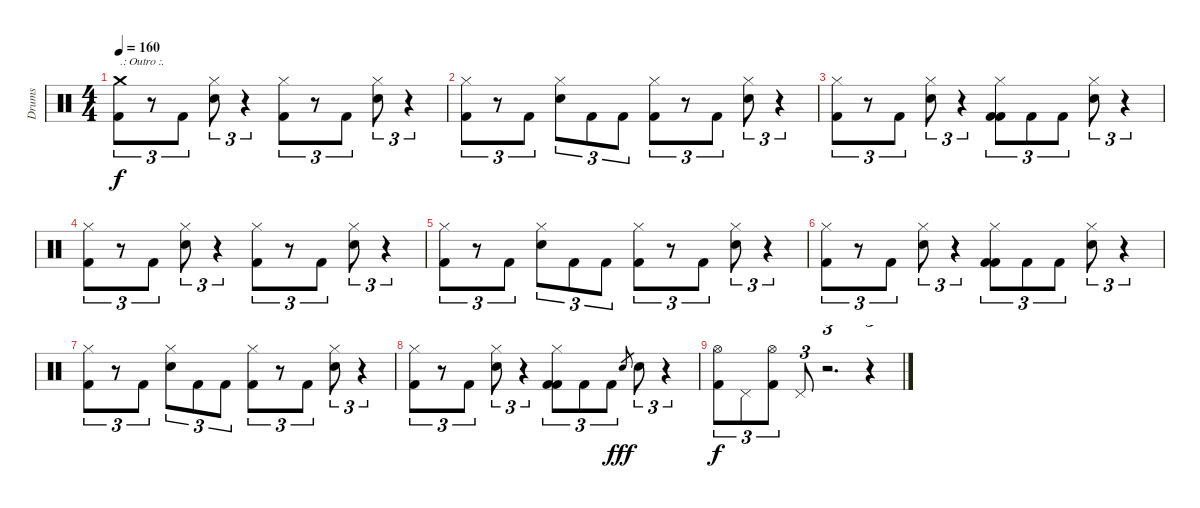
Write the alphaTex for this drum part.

\track ("Drums" "Drums") {instrument percussion}
\staff {score}
\articulation defaults
\ts (4 4)
\tempo 160
\clef neutral
\ks c
("Crash medium (hit)" "Kick (hit) 2").8{tu (3 2) txt ".: Outro :." dy f} r.8{tu (3 2)} "Kick (hit) 2".8{tu (3 2)} ("Hi-Hat (closed)" "Electric Snare (hit)").8{tu (3 2)} r.4{tu (3 2)} ("Kick (hit) 2" "Hi-Hat (closed)").8{tu (3 2)} r.8{tu (3 2)} "Kick (hit) 2".8{tu (3 2)} ("Hi-Hat (closed)" "Electric Snare (hit)").8{tu (3 2)} r.4{tu (3 2)} |
("Hi-Hat (closed)" "Kick (hit) 2").8{tu (3 2)} r.8{tu (3 2)} "Kick (hit) 2".8{tu (3 2)} ("Hi-Hat (closed)" "Electric Snare (hit)").8{tu (3 2)} "Kick (hit) 2".8{tu (3 2)} "Kick (hit) 2".8{tu (3 2)} ("Kick (hit) 2" "Hi-Hat (closed)").8{tu (3 2)} r.8{tu (3 2)} "Kick (hit) 2".8{tu (3 2)} ("Hi-Hat (closed)" "Electric Snare (hit)").8{tu (3 2)} r.4{tu (3 2)} |
("Hi-Hat (closed)" "Kick (hit) 2").8{tu (3 2)} r.8{tu (3 2)} "Kick (hit) 2".8{tu (3 2)} ("Hi-Hat (closed)" "Electric Snare (hit)").8{tu (3 2)} r.4{tu (3 2)} ("Kick (hit) 2" "Hi-Hat (closed)" "Kick (hit) 2").8{tu (3 2)} "Kick (hit) 2".8{tu (3 2)} "Kick (hit) 2".8{tu (3 2)} ("Hi-Hat (closed)" "Electric Snare (hit)").8{tu (3 2)} r.4{tu (3 2)} |
("Hi-Hat (closed)" "Kick (hit) 2").8{tu (3 2)} r.8{tu (3 2)} "Kick (hit) 2".8{tu (3 2)} ("Hi-Hat (closed)" "Electric Snare (hit)").8{tu (3 2)} r.4{tu (3 2)} ("Kick (hit) 2" "Hi-Hat (closed)").8{tu (3 2)} r.8{tu (3 2)} "Kick (hit) 2".8{tu (3 2)} ("Hi-Hat (closed)" "Electric Snare (hit)").8{tu (3 2)} r.4{tu (3 2)} |
("Hi-Hat (closed)" "Kick (hit) 2").8{tu (3 2)} r.8{tu (3 2)} "Kick (hit) 2".8{tu (3 2)} ("Hi-Hat (closed)" "Electric Snare (hit)").8{tu (3 2)} "Kick (hit) 2".8{tu (3 2)} "Kick (hit) 2".8{tu (3 2)} ("Kick (hit) 2" "Hi-Hat (closed)").8{tu (3 2)} r.8{tu (3 2)} "Kick (hit) 2".8{tu (3 2)} ("Hi-Hat (closed)" "Electric Snare (hit)").8{tu (3 2)} r.4{tu (3 2)} |
("Hi-Hat (closed)" "Kick (hit) 2").8{tu (3 2)} r.8{tu (3 2)} "Kick (hit) 2".8{tu (3 2)} ("Hi-Hat (closed)" "Electric Snare (hit)").8{tu (3 2)} r.4{tu (3 2)} ("Kick (hit) 2" "Hi-Hat (closed)" "Kick (hit) 2").8{tu (3 2)} "Kick (hit) 2".8{tu (3 2)} "Kick (hit) 2".8{tu (3 2)} ("Hi-Hat (closed)" "Electric Snare (hit)").8{tu (3 2)} r.4{tu (3 2)} |
("Hi-Hat (closed)" "Kick (hit) 2").8{tu (3 2)} r.8{tu (3 2)} "Kick (hit) 2".8{tu (3 2)} ("Hi-Hat (closed)" "Electric Snare (hit)").8{tu (3 2)} "Kick (hit) 2".8{tu (3 2)} "Kick (hit) 2".8{tu (3 2)} ("Kick (hit) 2" "Hi-Hat (closed)").8{tu (3 2)} r.8{tu (3 2)} "Kick (hit) 2".8{tu (3 2)} ("Hi-Hat (closed)" "Electric Snare (hit)").8{tu (3 2)} r.4{tu (3 2)} |
("Hi-Hat (closed)" "Kick (hit) 2").8{tu (3 2)} r.8{tu (3 2)} "Kick (hit) 2".8{tu (3 2)} ("Hi-Hat (closed)" "Electric Snare (hit)").8{tu (3 2)} r.4{tu (3 2)} ("Kick (hit) 2" "Hi-Hat (closed)" "Kick (hit) 2").8{tu (3 2)} "Kick (hit) 2".8{tu (3 2)} "Kick (hit) 2".8{tu (3 2)} "Electric Snare (hit)"{h}.8{gr dy fff} "Electric Snare (hit)".8{tu (3 2)} r.4{tu (3 2)} |
("Hi-Hat (open)" "Kick (hit) 2").8{tu (3 2) dy f} "Pedal Hi-Hat (hit)".8{tu (3 2)} ("Hi-Hat (open)" "Kick (hit) 2").8{tu (3 2)} "Pedal Hi-Hat (hit)".8{tu (3 2)} r.2{d tu (3 2)} r.4{tu (3 2)}
